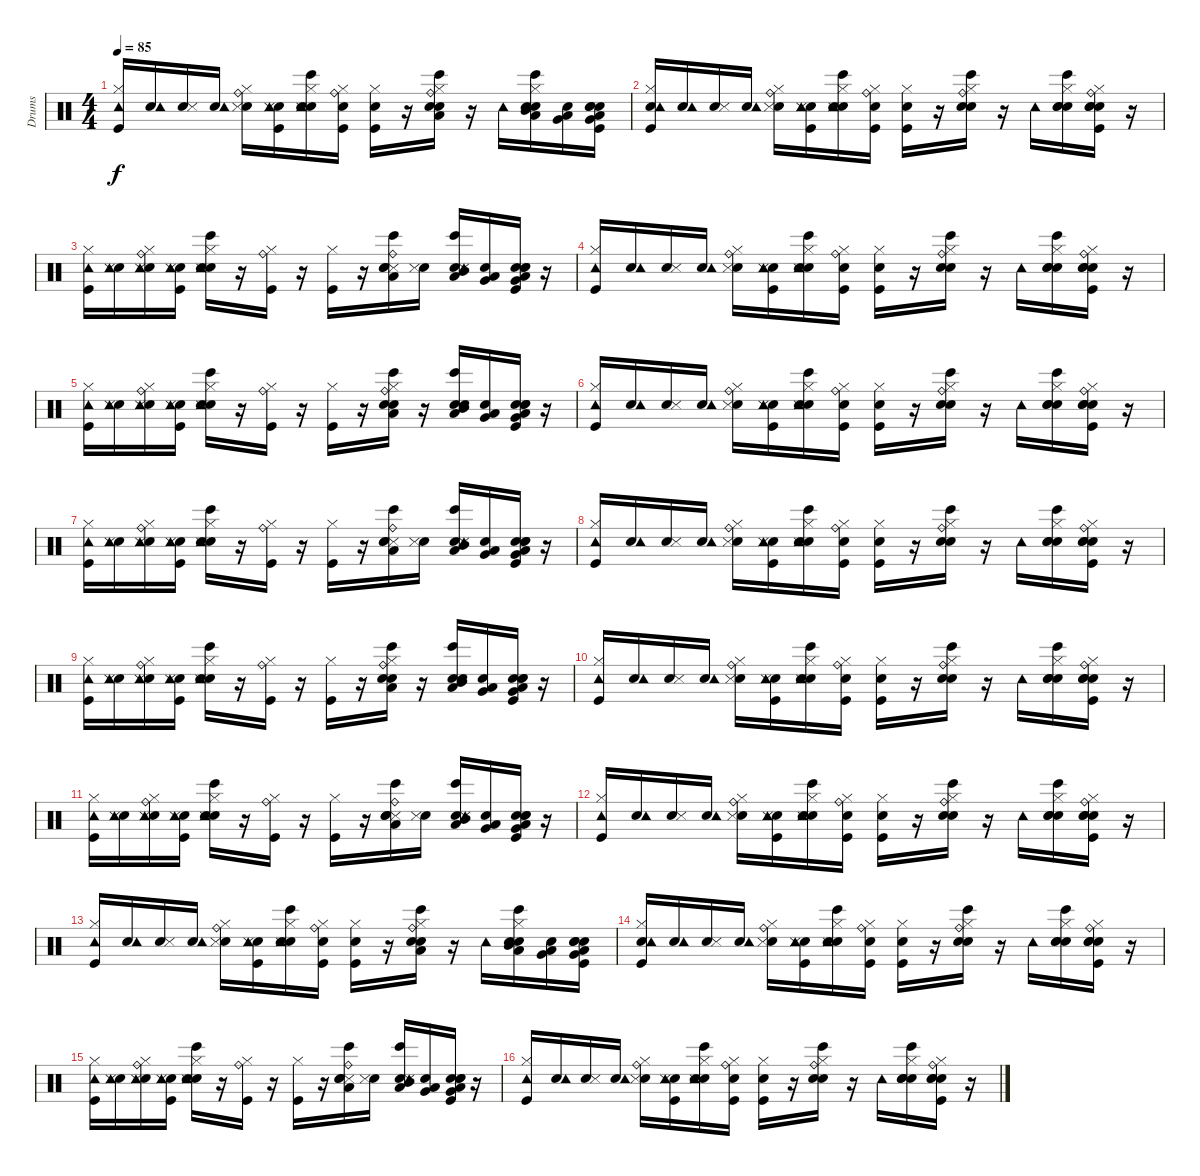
\track ("Drums" "Drums") {instrument percussion}
\staff {score}
\articulation defaults
\ts (4 4)
\tempo 85
\clef neutral
\ks c
("Kick (hit)" "Hi-Hat (closed)" "Tambourine (hit)").16{dy f} ("Snare (hit)" "Tambourine (hit)").16 ("Snare (hit)" "Metronome (hit)").16 ("Snare (hit)" "Tambourine (hit)").16 ("Snare (hit)" "Metronome (hit)" "Hi-Hat (closed)" "Ride (bell)").16 ("Snare (hit)" "Tambourine (hit)" "Metronome (hit)" "Kick (hit)").16 ("Snare (hit)" "Bongo High (hit)" "Metronome (hit)" "Snare (hit) 2" "Hi-Hat (closed)" "Tambourine (hit)").16 ("Snare (hit)" "Kick (hit)" "Hi-Hat (closed)" "Ride (bell)").16 ("Snare (hit)" "Kick (hit)" "Hi-Hat (closed)").16 r.16 ("Low Tom (hit)" "Bongo High (hit)" "Snare (hit) 2" "Hand Clap (hit)" "Hi-Hat (closed)" "Ride (bell)").16 r.16 "Tambourine (hit)".16 ("Snare (hit)" "Low Tom (hit)" "Mid Tom (hit)" "Bongo High (hit)" "Snare (hit) 2" "Hi-Hat (closed)").16 ("Snare (hit)" "Low Tom (hit)" "Very Low Tom (hit)").16 ("Snare (hit)" "Very Low Tom (hit)" "Kick (hit)" "Snare (hit) 2" "Hand Clap (hit)" "Low Floor Tom (hit)").16 |
("Snare (hit)" "Kick (hit)" "Hi-Hat (closed)" "Tambourine (hit)").16 ("Snare (hit)" "Tambourine (hit)").16 ("Snare (hit)" "Metronome (hit)").16 ("Snare (hit)" "Tambourine (hit)").16 ("Snare (hit)" "Metronome (hit)" "Hi-Hat (closed)" "Ride (bell)").16 ("Snare (hit)" "Tambourine (hit)" "Metronome (hit)" "Kick (hit)").16 ("Snare (hit)" "Bongo High (hit)" "Metronome (hit)" "Snare (hit) 2" "Hi-Hat (closed)" "Tambourine (hit)").16 ("Snare (hit)" "Kick (hit)" "Hi-Hat (closed)" "Ride (bell)").16 ("Snare (hit)" "Kick (hit)" "Hi-Hat (closed)").16 r.16 ("Bongo High (hit)" "Snare (hit) 2" "Hand Clap (hit)" "Hi-Hat (closed)" "Ride (bell)").16 r.16 "Tambourine (hit)".16 ("Snare (hit)" "Bongo High (hit)" "Snare (hit) 2" "Hand Clap (hit)" "Hi-Hat (closed)").16 ("Snare (hit)" "Kick (hit)" "Snare (hit) 2" "Hand Clap (hit)" "Hi-Hat (closed)" "Ride (bell)").16 r.16 |
("Kick (hit)" "Hi-Hat (closed)" "Tambourine (hit)").16 ("Snare (hit)" "Metronome (hit)" "Tambourine (hit)").16 ("Snare (hit)" "Metronome (hit)" "Hi-Hat (closed)" "Ride (bell)" "Tambourine (hit)").16 ("Snare (hit)" "Metronome (hit)" "Kick (hit)" "Tambourine (hit)").16 ("Snare (hit)" "Bongo High (hit)" "Metronome (hit)" "Snare (hit) 2" "Hi-Hat (closed)" "Tambourine (hit)").16 r.16 ("Kick (hit)" "Hi-Hat (closed)" "Ride (bell)").16 r.16 ("Kick (hit)" "Hi-Hat (closed)").16 r.16 ("Low Tom (hit)" "Bongo High (hit)" "Metronome (hit)" "Snare (hit) 2" "Hand Clap (hit)" "Ride (bell)").16 ("Snare (hit)" "Metronome (hit)").16 ("Snare (hit)" "Low Tom (hit)" "Mid Tom (hit)" "Bongo High (hit)" "Metronome (hit)" "Tambourine (hit)").16 ("Snare (hit)" "Low Tom (hit)" "Very Low Tom (hit)").16 ("Snare (hit)" "Very Low Tom (hit)" "Kick (hit)" "Snare (hit) 2" "Hand Clap (hit)" "Low Floor Tom (hit)").16 r.16 |
("Kick (hit)" "Hi-Hat (closed)" "Tambourine (hit)").16 ("Snare (hit)" "Tambourine (hit)").16 ("Snare (hit)" "Metronome (hit)").16 ("Snare (hit)" "Tambourine (hit)").16 ("Snare (hit)" "Metronome (hit)" "Hi-Hat (closed)" "Ride (bell)").16 ("Snare (hit)" "Tambourine (hit)" "Metronome (hit)" "Kick (hit)").16 ("Snare (hit)" "Bongo High (hit)" "Metronome (hit)" "Snare (hit) 2" "Hi-Hat (closed)" "Tambourine (hit)").16 ("Snare (hit)" "Kick (hit)" "Hi-Hat (closed)" "Ride (bell)").16 ("Snare (hit)" "Kick (hit)" "Hi-Hat (closed)").16 r.16 ("Bongo High (hit)" "Snare (hit) 2" "Hand Clap (hit)" "Hi-Hat (closed)" "Ride (bell)").16 r.16 "Tambourine (hit)".16 ("Snare (hit)" "Bongo High (hit)" "Snare (hit) 2" "Hand Clap (hit)" "Hi-Hat (closed)").16 ("Snare (hit)" "Kick (hit)" "Snare (hit) 2" "Hand Clap (hit)" "Hi-Hat (closed)" "Ride (bell)").16 r.16 |
("Kick (hit)" "Hi-Hat (closed)" "Tambourine (hit)").16 ("Snare (hit)" "Metronome (hit)" "Tambourine (hit)").16 ("Snare (hit)" "Metronome (hit)" "Hi-Hat (closed)" "Ride (bell)" "Tambourine (hit)").16 ("Snare (hit)" "Metronome (hit)" "Kick (hit)" "Tambourine (hit)").16 ("Snare (hit)" "Bongo High (hit)" "Metronome (hit)" "Snare (hit) 2" "Hi-Hat (closed)" "Tambourine (hit)").16 r.16 ("Kick (hit)" "Hi-Hat (closed)" "Ride (bell)").16 r.16 ("Kick (hit)" "Hi-Hat (closed)").16 r.16 ("Low Tom (hit)" "Bongo High (hit)" "Snare (hit) 2" "Hand Clap (hit)" "Hi-Hat (closed)" "Ride (bell)").16 r.16 ("Low Tom (hit)" "Mid Tom (hit)" "Bongo High (hit)" "Snare (hit) 2" "Hand Clap (hit)" "Tambourine (hit)").16 ("Snare (hit)" "Low Tom (hit)" "Very Low Tom (hit)").16 ("Snare (hit)" "Very Low Tom (hit)" "Kick (hit)" "Snare (hit) 2" "Hand Clap (hit)" "Low Floor Tom (hit)").16 r.16 |
("Kick (hit)" "Hi-Hat (closed)" "Tambourine (hit)").16 ("Snare (hit)" "Tambourine (hit)").16 ("Snare (hit)" "Metronome (hit)").16 ("Snare (hit)" "Tambourine (hit)").16 ("Snare (hit)" "Metronome (hit)" "Hi-Hat (closed)" "Ride (bell)").16 ("Snare (hit)" "Tambourine (hit)" "Metronome (hit)" "Kick (hit)").16 ("Snare (hit)" "Bongo High (hit)" "Metronome (hit)" "Snare (hit) 2" "Hi-Hat (closed)" "Tambourine (hit)").16 ("Snare (hit)" "Kick (hit)" "Hi-Hat (closed)" "Ride (bell)").16 ("Snare (hit)" "Kick (hit)" "Hi-Hat (closed)").16 r.16 ("Bongo High (hit)" "Snare (hit) 2" "Hand Clap (hit)" "Hi-Hat (closed)" "Ride (bell)").16 r.16 "Tambourine (hit)".16 ("Snare (hit)" "Bongo High (hit)" "Snare (hit) 2" "Hand Clap (hit)" "Hi-Hat (closed)").16 ("Snare (hit)" "Kick (hit)" "Snare (hit) 2" "Hand Clap (hit)" "Hi-Hat (closed)" "Ride (bell)").16 r.16 |
("Kick (hit)" "Hi-Hat (closed)" "Tambourine (hit)").16 ("Snare (hit)" "Metronome (hit)" "Tambourine (hit)").16 ("Snare (hit)" "Metronome (hit)" "Hi-Hat (closed)" "Ride (bell)" "Tambourine (hit)").16 ("Snare (hit)" "Metronome (hit)" "Kick (hit)" "Tambourine (hit)").16 ("Snare (hit)" "Bongo High (hit)" "Metronome (hit)" "Snare (hit) 2" "Hi-Hat (closed)" "Tambourine (hit)").16 r.16 ("Kick (hit)" "Hi-Hat (closed)" "Ride (bell)").16 r.16 ("Kick (hit)" "Hi-Hat (closed)").16 r.16 ("Low Tom (hit)" "Bongo High (hit)" "Metronome (hit)" "Snare (hit) 2" "Hand Clap (hit)" "Ride (bell)").16 ("Snare (hit)" "Metronome (hit)").16 ("Snare (hit)" "Low Tom (hit)" "Mid Tom (hit)" "Bongo High (hit)" "Metronome (hit)" "Tambourine (hit)").16 ("Snare (hit)" "Low Tom (hit)" "Very Low Tom (hit)").16 ("Snare (hit)" "Very Low Tom (hit)" "Kick (hit)" "Snare (hit) 2" "Hand Clap (hit)" "Low Floor Tom (hit)").16 r.16 |
("Kick (hit)" "Hi-Hat (closed)" "Tambourine (hit)").16 ("Snare (hit)" "Tambourine (hit)").16 ("Snare (hit)" "Metronome (hit)").16 ("Snare (hit)" "Tambourine (hit)").16 ("Snare (hit)" "Metronome (hit)" "Hi-Hat (closed)" "Ride (bell)").16 ("Snare (hit)" "Tambourine (hit)" "Metronome (hit)" "Kick (hit)").16 ("Snare (hit)" "Bongo High (hit)" "Metronome (hit)" "Snare (hit) 2" "Hi-Hat (closed)" "Tambourine (hit)").16 ("Snare (hit)" "Kick (hit)" "Hi-Hat (closed)" "Ride (bell)").16 ("Snare (hit)" "Kick (hit)" "Hi-Hat (closed)").16 r.16 ("Bongo High (hit)" "Snare (hit) 2" "Hand Clap (hit)" "Hi-Hat (closed)" "Ride (bell)").16 r.16 "Tambourine (hit)".16 ("Snare (hit)" "Bongo High (hit)" "Snare (hit) 2" "Hand Clap (hit)" "Hi-Hat (closed)").16 ("Snare (hit)" "Kick (hit)" "Snare (hit) 2" "Hand Clap (hit)" "Hi-Hat (closed)" "Ride (bell)").16 r.16 |
("Kick (hit)" "Hi-Hat (closed)" "Tambourine (hit)").16 ("Snare (hit)" "Metronome (hit)" "Tambourine (hit)").16 ("Snare (hit)" "Metronome (hit)" "Hi-Hat (closed)" "Ride (bell)" "Tambourine (hit)").16 ("Snare (hit)" "Metronome (hit)" "Kick (hit)" "Tambourine (hit)").16 ("Snare (hit)" "Bongo High (hit)" "Metronome (hit)" "Snare (hit) 2" "Hi-Hat (closed)" "Tambourine (hit)").16 r.16 ("Kick (hit)" "Hi-Hat (closed)" "Ride (bell)").16 r.16 ("Kick (hit)" "Hi-Hat (closed)").16 r.16 ("Low Tom (hit)" "Bongo High (hit)" "Snare (hit) 2" "Hand Clap (hit)" "Hi-Hat (closed)" "Ride (bell)").16 r.16 ("Low Tom (hit)" "Mid Tom (hit)" "Bongo High (hit)" "Snare (hit) 2" "Hand Clap (hit)" "Tambourine (hit)").16 ("Snare (hit)" "Low Tom (hit)" "Very Low Tom (hit)").16 ("Snare (hit)" "Very Low Tom (hit)" "Kick (hit)" "Snare (hit) 2" "Hand Clap (hit)" "Low Floor Tom (hit)").16 r.16 |
("Kick (hit)" "Hi-Hat (closed)" "Tambourine (hit)").16 ("Snare (hit)" "Tambourine (hit)").16 ("Snare (hit)" "Metronome (hit)").16 ("Snare (hit)" "Tambourine (hit)").16 ("Snare (hit)" "Metronome (hit)" "Hi-Hat (closed)" "Ride (bell)").16 ("Snare (hit)" "Tambourine (hit)" "Metronome (hit)" "Kick (hit)").16 ("Snare (hit)" "Bongo High (hit)" "Metronome (hit)" "Snare (hit) 2" "Hi-Hat (closed)" "Tambourine (hit)").16 ("Snare (hit)" "Kick (hit)" "Hi-Hat (closed)" "Ride (bell)").16 ("Snare (hit)" "Kick (hit)" "Hi-Hat (closed)").16 r.16 ("Bongo High (hit)" "Snare (hit) 2" "Hand Clap (hit)" "Hi-Hat (closed)" "Ride (bell)").16 r.16 "Tambourine (hit)".16 ("Snare (hit)" "Bongo High (hit)" "Snare (hit) 2" "Hand Clap (hit)" "Hi-Hat (closed)").16 ("Snare (hit)" "Kick (hit)" "Snare (hit) 2" "Hand Clap (hit)" "Hi-Hat (closed)" "Ride (bell)").16 r.16 |
("Kick (hit)" "Hi-Hat (closed)" "Tambourine (hit)").16 ("Snare (hit)" "Metronome (hit)" "Tambourine (hit)").16 ("Snare (hit)" "Metronome (hit)" "Hi-Hat (closed)" "Ride (bell)" "Tambourine (hit)").16 ("Snare (hit)" "Metronome (hit)" "Kick (hit)" "Tambourine (hit)").16 ("Snare (hit)" "Bongo High (hit)" "Metronome (hit)" "Snare (hit) 2" "Hi-Hat (closed)" "Tambourine (hit)").16 r.16 ("Kick (hit)" "Hi-Hat (closed)" "Ride (bell)").16 r.16 ("Kick (hit)" "Hi-Hat (closed)").16 r.16 ("Low Tom (hit)" "Bongo High (hit)" "Metronome (hit)" "Snare (hit) 2" "Hand Clap (hit)" "Ride (bell)").16 ("Snare (hit)" "Metronome (hit)").16 ("Snare (hit)" "Low Tom (hit)" "Mid Tom (hit)" "Bongo High (hit)" "Metronome (hit)" "Tambourine (hit)").16 ("Snare (hit)" "Low Tom (hit)" "Very Low Tom (hit)").16 ("Snare (hit)" "Very Low Tom (hit)" "Kick (hit)" "Snare (hit) 2" "Hand Clap (hit)" "Low Floor Tom (hit)").16 r.16 |
("Kick (hit)" "Hi-Hat (closed)" "Tambourine (hit)").16 ("Snare (hit)" "Tambourine (hit)").16 ("Snare (hit)" "Metronome (hit)").16 ("Snare (hit)" "Tambourine (hit)").16 ("Snare (hit)" "Metronome (hit)" "Hi-Hat (closed)" "Ride (bell)").16 ("Snare (hit)" "Tambourine (hit)" "Metronome (hit)" "Kick (hit)").16 ("Snare (hit)" "Bongo High (hit)" "Metronome (hit)" "Snare (hit) 2" "Hi-Hat (closed)" "Tambourine (hit)").16 ("Snare (hit)" "Kick (hit)" "Hi-Hat (closed)" "Ride (bell)").16 ("Snare (hit)" "Kick (hit)" "Hi-Hat (closed)").16 r.16 ("Bongo High (hit)" "Snare (hit) 2" "Hand Clap (hit)" "Hi-Hat (closed)" "Ride (bell)").16 r.16 "Tambourine (hit)".16 ("Snare (hit)" "Bongo High (hit)" "Snare (hit) 2" "Hand Clap (hit)" "Hi-Hat (closed)").16 ("Snare (hit)" "Kick (hit)" "Snare (hit) 2" "Hand Clap (hit)" "Hi-Hat (closed)" "Ride (bell)").16 r.16 |
("Kick (hit)" "Hi-Hat (closed)" "Tambourine (hit)").16 ("Snare (hit)" "Tambourine (hit)").16 ("Snare (hit)" "Metronome (hit)").16 ("Snare (hit)" "Tambourine (hit)").16 ("Snare (hit)" "Metronome (hit)" "Hi-Hat (closed)" "Ride (bell)").16 ("Snare (hit)" "Tambourine (hit)" "Metronome (hit)" "Kick (hit)").16 ("Snare (hit)" "Bongo High (hit)" "Metronome (hit)" "Snare (hit) 2" "Hi-Hat (closed)" "Tambourine (hit)").16 ("Snare (hit)" "Kick (hit)" "Hi-Hat (closed)" "Ride (bell)").16 ("Snare (hit)" "Kick (hit)" "Hi-Hat (closed)").16 r.16 ("Low Tom (hit)" "Bongo High (hit)" "Snare (hit) 2" "Hand Clap (hit)" "Hi-Hat (closed)" "Ride (bell)").16 r.16 "Tambourine (hit)".16 ("Snare (hit)" "Low Tom (hit)" "Mid Tom (hit)" "Bongo High (hit)" "Snare (hit) 2" "Hi-Hat (closed)").16 ("Snare (hit)" "Low Tom (hit)" "Very Low Tom (hit)").16 ("Snare (hit)" "Very Low Tom (hit)" "Kick (hit)" "Snare (hit) 2" "Hand Clap (hit)" "Low Floor Tom (hit)").16 |
("Snare (hit)" "Kick (hit)" "Hi-Hat (closed)" "Tambourine (hit)").16 ("Snare (hit)" "Tambourine (hit)").16 ("Snare (hit)" "Metronome (hit)").16 ("Snare (hit)" "Tambourine (hit)").16 ("Snare (hit)" "Metronome (hit)" "Hi-Hat (closed)" "Ride (bell)").16 ("Snare (hit)" "Tambourine (hit)" "Metronome (hit)" "Kick (hit)").16 ("Snare (hit)" "Bongo High (hit)" "Metronome (hit)" "Snare (hit) 2" "Hi-Hat (closed)" "Tambourine (hit)").16 ("Snare (hit)" "Kick (hit)" "Hi-Hat (closed)" "Ride (bell)").16 ("Snare (hit)" "Kick (hit)" "Hi-Hat (closed)").16 r.16 ("Bongo High (hit)" "Snare (hit) 2" "Hand Clap (hit)" "Hi-Hat (closed)" "Ride (bell)").16 r.16 "Tambourine (hit)".16 ("Snare (hit)" "Bongo High (hit)" "Snare (hit) 2" "Hand Clap (hit)" "Hi-Hat (closed)").16 ("Snare (hit)" "Kick (hit)" "Snare (hit) 2" "Hand Clap (hit)" "Hi-Hat (closed)" "Ride (bell)").16 r.16 |
("Kick (hit)" "Hi-Hat (closed)" "Tambourine (hit)").16 ("Snare (hit)" "Metronome (hit)" "Tambourine (hit)").16 ("Snare (hit)" "Metronome (hit)" "Hi-Hat (closed)" "Ride (bell)" "Tambourine (hit)").16 ("Snare (hit)" "Metronome (hit)" "Kick (hit)" "Tambourine (hit)").16 ("Snare (hit)" "Bongo High (hit)" "Metronome (hit)" "Snare (hit) 2" "Hi-Hat (closed)" "Tambourine (hit)").16 r.16 ("Kick (hit)" "Hi-Hat (closed)" "Ride (bell)").16 r.16 ("Kick (hit)" "Hi-Hat (closed)").16 r.16 ("Low Tom (hit)" "Bongo High (hit)" "Metronome (hit)" "Snare (hit) 2" "Hand Clap (hit)" "Ride (bell)").16 ("Snare (hit)" "Metronome (hit)").16 ("Snare (hit)" "Low Tom (hit)" "Mid Tom (hit)" "Bongo High (hit)" "Metronome (hit)" "Tambourine (hit)").16 ("Snare (hit)" "Low Tom (hit)" "Very Low Tom (hit)").16 ("Snare (hit)" "Very Low Tom (hit)" "Kick (hit)" "Snare (hit) 2" "Hand Clap (hit)" "Low Floor Tom (hit)").16 r.16 |
("Kick (hit)" "Hi-Hat (closed)" "Tambourine (hit)").16 ("Snare (hit)" "Tambourine (hit)").16 ("Snare (hit)" "Metronome (hit)").16 ("Snare (hit)" "Tambourine (hit)").16 ("Snare (hit)" "Metronome (hit)" "Hi-Hat (closed)" "Ride (bell)").16 ("Snare (hit)" "Tambourine (hit)" "Metronome (hit)" "Kick (hit)").16 ("Snare (hit)" "Bongo High (hit)" "Metronome (hit)" "Snare (hit) 2" "Hi-Hat (closed)" "Tambourine (hit)").16 ("Snare (hit)" "Kick (hit)" "Hi-Hat (closed)" "Ride (bell)").16 ("Snare (hit)" "Kick (hit)" "Hi-Hat (closed)").16 r.16 ("Bongo High (hit)" "Snare (hit) 2" "Hand Clap (hit)" "Hi-Hat (closed)" "Ride (bell)").16 r.16 "Tambourine (hit)".16 ("Snare (hit)" "Bongo High (hit)" "Snare (hit) 2" "Hand Clap (hit)" "Hi-Hat (closed)").16 ("Snare (hit)" "Kick (hit)" "Snare (hit) 2" "Hand Clap (hit)" "Hi-Hat (closed)" "Ride (bell)").16 r.16
